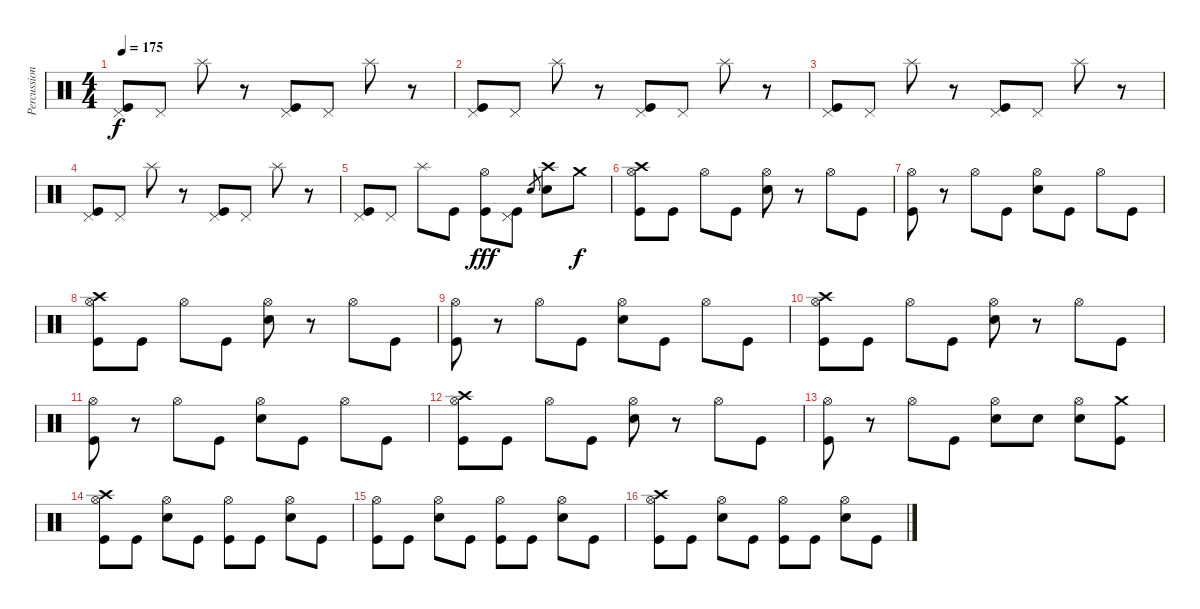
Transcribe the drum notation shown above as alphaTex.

\track ("Percussions" "Percussion") {instrument percussion}
\staff {score}
\articulation defaults
\ts (4 4)
\tempo 175
\clef neutral
\ks c
("Pedal Hi-Hat (hit)" "Kick (hit)").8{dy f} "Pedal Hi-Hat (hit)".8 "Splash (hit)".8 r.8 ("Pedal Hi-Hat (hit)" "Kick (hit)").8 "Pedal Hi-Hat (hit)".8 "Splash (hit)".8 r.8 |
("Pedal Hi-Hat (hit)" "Kick (hit)").8 "Pedal Hi-Hat (hit)".8 "Splash (hit)".8 r.8 ("Pedal Hi-Hat (hit)" "Kick (hit)").8 "Pedal Hi-Hat (hit)".8 "Splash (hit)".8 r.8 |
("Pedal Hi-Hat (hit)" "Kick (hit)").8 "Pedal Hi-Hat (hit)".8 "Splash (hit)".8 r.8 ("Pedal Hi-Hat (hit)" "Kick (hit)").8 "Pedal Hi-Hat (hit)".8 "Splash (hit)".8 r.8 |
("Pedal Hi-Hat (hit)" "Kick (hit)").8 "Pedal Hi-Hat (hit)".8 "Splash (hit)".8 r.8 ("Pedal Hi-Hat (hit)" "Kick (hit)").8 "Pedal Hi-Hat (hit)".8 "Splash (hit)".8 r.8 |
("Pedal Hi-Hat (hit)" "Kick (hit)").8 "Pedal Hi-Hat (hit)".8 "Splash (hit)".8 "Kick (hit)".8 ("Hi-Hat (open)" "Kick (hit)").8{dy fff} ("Pedal Hi-Hat (hit)" "Kick (hit)").8 "Snare (hit) 2".8{gr} ("Crash high (hit)" "Snare (hit) 2").8 "Crash medium (hit)".8{dy f} |
("Hi-Hat (open)" "Crash high (hit)" "Kick (hit)").8 "Kick (hit)".8 "Hi-Hat (open)".8 "Kick (hit)".8 ("Hi-Hat (open)" "Snare (hit) 2").8 r.8 "Hi-Hat (open)".8 "Kick (hit)".8 |
("Hi-Hat (open)" "Kick (hit)").8 r.8 "Hi-Hat (open)".8 "Kick (hit)".8 ("Hi-Hat (open)" "Snare (hit) 2").8 "Kick (hit)".8 "Hi-Hat (open)".8 "Kick (hit)".8 |
("Hi-Hat (open)" "Crash high (hit)" "Kick (hit)").8 "Kick (hit)".8 "Hi-Hat (open)".8 "Kick (hit)".8 ("Hi-Hat (open)" "Snare (hit) 2").8 r.8 "Hi-Hat (open)".8 "Kick (hit)".8 |
("Hi-Hat (open)" "Kick (hit)").8 r.8 "Hi-Hat (open)".8 "Kick (hit)".8 ("Hi-Hat (open)" "Snare (hit) 2").8 "Kick (hit)".8 "Hi-Hat (open)".8 "Kick (hit)".8 |
("Hi-Hat (open)" "Crash high (hit)" "Kick (hit)").8 "Kick (hit)".8 "Hi-Hat (open)".8 "Kick (hit)".8 ("Hi-Hat (open)" "Snare (hit) 2").8 r.8 "Hi-Hat (open)".8 "Kick (hit)".8 |
("Hi-Hat (open)" "Kick (hit)").8 r.8 "Hi-Hat (open)".8 "Kick (hit)".8 ("Hi-Hat (open)" "Snare (hit) 2").8 "Kick (hit)".8 "Hi-Hat (open)".8 "Kick (hit)".8 |
("Hi-Hat (open)" "Crash high (hit)" "Kick (hit)").8 "Kick (hit)".8 "Hi-Hat (open)".8 "Kick (hit)".8 ("Hi-Hat (open)" "Snare (hit) 2").8 r.8 "Hi-Hat (open)".8 "Kick (hit)".8 |
("Hi-Hat (open)" "Kick (hit)").8 r.8 "Hi-Hat (open)".8 "Kick (hit)".8 ("Hi-Hat (open)" "Snare (hit) 2").8 "Snare (hit) 2".8 ("Hi-Hat (open)" "Snare (hit) 2").8 ("Crash medium (hit)" "Kick (hit)").8 |
("Hi-Hat (open)" "Crash high (hit)" "Kick (hit)").8 "Kick (hit)".8 ("Hi-Hat (open)" "Snare (hit) 2").8 "Kick (hit)".8 ("Hi-Hat (open)" "Kick (hit)").8 "Kick (hit)".8 ("Hi-Hat (open)" "Snare (hit) 2").8 "Kick (hit)".8 |
("Hi-Hat (open)" "Kick (hit)").8 "Kick (hit)".8 ("Hi-Hat (open)" "Snare (hit) 2").8 "Kick (hit)".8 ("Hi-Hat (open)" "Kick (hit)").8 "Kick (hit)".8 ("Hi-Hat (open)" "Snare (hit) 2").8 "Kick (hit)".8 |
("Hi-Hat (open)" "Crash high (hit)" "Kick (hit)").8 "Kick (hit)".8 ("Hi-Hat (open)" "Snare (hit) 2").8 "Kick (hit)".8 ("Hi-Hat (open)" "Kick (hit)").8 "Kick (hit)".8 ("Hi-Hat (open)" "Snare (hit) 2").8 "Kick (hit)".8
